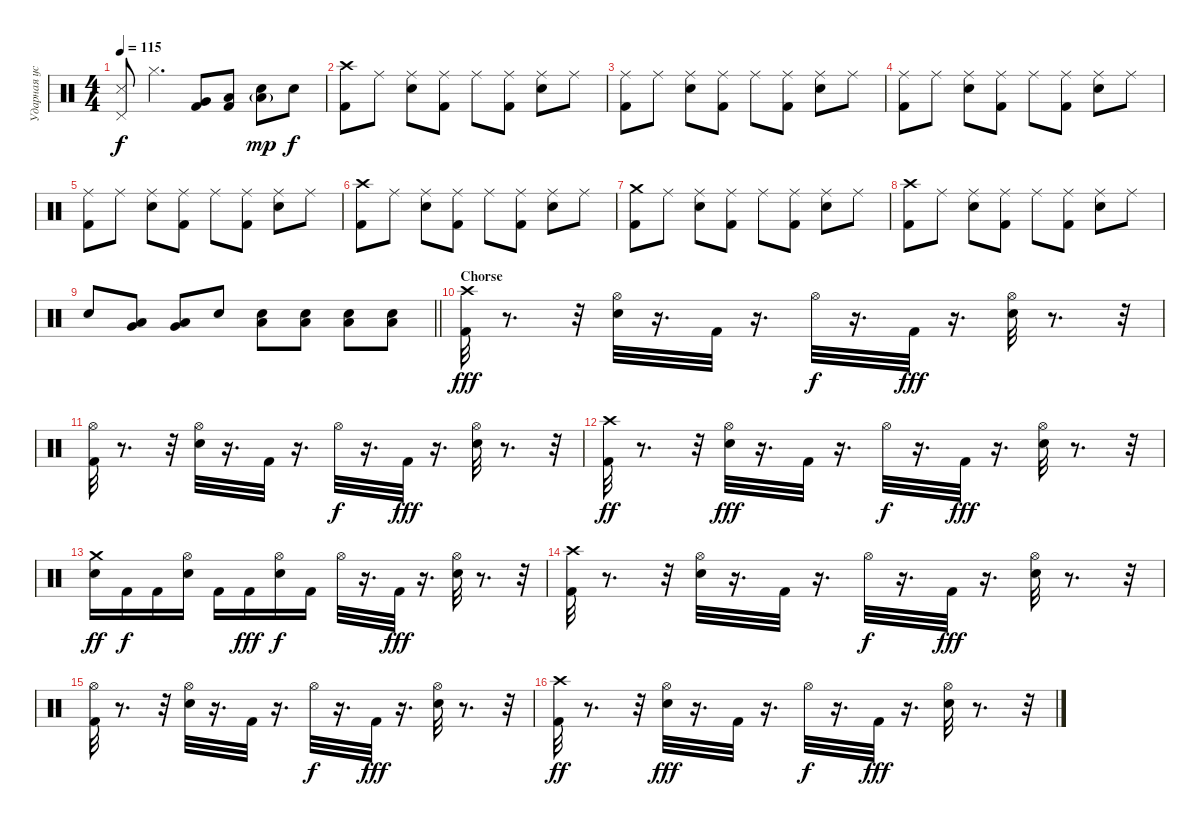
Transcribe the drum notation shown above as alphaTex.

\track ("Ударная установка" "Ударная ус") {instrument percussion}
\staff {score}
\articulation defaults
\ts (4 4)
\tempo 115
\clef neutral
\ks c
("Pedal Hi-Hat (hit)" "Snare (side stick) 3").8{dy f} "Hi-Hat (closed)".4{d} ("Very Low Tom (hit)" "Kick (hit) 2").8 ("Low Floor Tom (hit)" "Kick (hit) 2").8 ("Electric Snare (hit)" "Low Floor Tom (hit)"{g}).8{dy mp} "Electric Snare (hit)".8{dy f} |
("Crash high (hit)" "Kick (hit) 2").8 "Ride (middle)".8 ("Ride (middle)" "Electric Snare (hit)").8 ("Ride (middle)" "Kick (hit) 2").8 "Ride (middle)".8 ("Ride (middle)" "Kick (hit) 2").8 ("Ride (middle)" "Electric Snare (hit)").8 "Ride (middle)".8 |
("Ride (middle)" "Kick (hit) 2").8 "Ride (middle)".8 ("Ride (middle)" "Electric Snare (hit)").8 ("Ride (middle)" "Kick (hit) 2").8 "Ride (middle)".8 ("Ride (middle)" "Kick (hit) 2").8 ("Ride (middle)" "Electric Snare (hit)").8 "Ride (middle)".8 |
("Ride (middle)" "Kick (hit) 2").8 "Ride (middle)".8 ("Ride (middle)" "Electric Snare (hit)").8 ("Ride (middle)" "Kick (hit) 2").8 "Ride (middle)".8 ("Ride (middle)" "Kick (hit) 2").8 ("Ride (middle)" "Electric Snare (hit)").8 "Ride (middle)".8 |
("Ride (middle)" "Kick (hit) 2").8 "Ride (middle)".8 ("Ride (middle)" "Electric Snare (hit)").8 ("Ride (middle)" "Kick (hit) 2").8 "Ride (middle)".8 ("Ride (middle)" "Kick (hit) 2").8 ("Ride (middle)" "Electric Snare (hit)").8 "Ride (middle)".8 |
("Crash high (hit)" "Kick (hit) 2").8 "Ride (middle)".8 ("Ride (middle)" "Electric Snare (hit)").8 ("Ride (middle)" "Kick (hit) 2").8 "Ride (middle)".8 ("Ride (middle)" "Kick (hit) 2").8 ("Ride (middle)" "Electric Snare (hit)").8 "Ride (middle)".8 |
("Crash medium (hit)" "Kick (hit) 2").8 "Ride (middle)".8 ("Ride (middle)" "Electric Snare (hit)").8 ("Ride (middle)" "Kick (hit) 2").8 "Ride (middle)".8 ("Ride (middle)" "Kick (hit) 2").8 ("Ride (middle)" "Electric Snare (hit)").8 "Ride (middle)".8 |
("Crash high (hit)" "Kick (hit) 2").8 "Ride (middle)".8 ("Ride (middle)" "Electric Snare (hit)").8 ("Ride (middle)" "Kick (hit) 2").8 "Ride (middle)".8 ("Ride (middle)" "Kick (hit) 2").8 ("Ride (middle)" "Electric Snare (hit)").8 "Ride (middle)".8 |
\barLineRight lightlight "Electric Snare (hit)".8
("Very Low Tom (hit)" "Low Floor Tom (hit)").8 ("Very Low Tom (hit)" "Low Floor Tom (hit)").8 "Electric Snare (hit)".8 ("Electric Snare (hit)" "Low Floor Tom (hit)").8 ("Electric Snare (hit)" "Low Floor Tom (hit)").8 ("Electric Snare (hit)" "Low Floor Tom (hit)").8 ("Electric Snare (hit)" "Low Floor Tom (hit)").8 |
\section ("" "Chorse")
("Crash high (hit)" "Kick (hit) 2").32{dy fff} r.8{d} r.32 ("Hi-Hat (open)" "Snare (hit) 2").32 r.16{d} "Kick (hit) 2".32 r.16{d} "Hi-Hat (open)".32{dy f} r.16{d} "Kick (hit) 2".32{dy fff} r.16{d} ("Hi-Hat (open)" "Snare (hit) 2").32 r.8{d} r.32 |
("Hi-Hat (open)" "Kick (hit) 2").32 r.8{d} r.32 ("Hi-Hat (open)" "Snare (hit) 2").32 r.16{d} "Kick (hit) 2".32 r.16{d} "Hi-Hat (open)".32{dy f} r.16{d} "Kick (hit) 2".32{dy fff} r.16{d} ("Hi-Hat (open)" "Snare (hit) 2").32 r.8{d} r.32 |
("Kick (hit) 2" "Crash high (hit)").32{dy ff} r.8{d} r.32 ("Snare (hit) 2" "Hi-Hat (open)").32{dy fff} r.16{d} "Kick (hit) 2".32 r.16{d} "Hi-Hat (open)".32{dy f} r.16{d} "Kick (hit) 2".32{dy fff} r.16{d} ("Snare (hit) 2" "Hi-Hat (open)").32 r.8{d} r.32 |
("Snare (hit) 2" "Crash medium (hit)").16{dy ff} "Kick (hit) 2".16{dy f} "Kick (hit) 2".16 ("Snare (hit) 2" "Hi-Hat (open)").16 "Kick (hit) 2".16 "Kick (hit) 2".16{dy fff} ("Snare (hit) 2" "Hi-Hat (open)").16{dy f} "Kick (hit) 2".16 "Hi-Hat (open)".32 r.16{d} "Kick (hit) 2".32{dy fff} r.16{d} ("Snare (hit) 2" "Hi-Hat (open)").32 r.8{d} r.32 |
("Crash high (hit)" "Kick (hit) 2").32 r.8{d} r.32 ("Hi-Hat (open)" "Snare (hit) 2").32 r.16{d} "Kick (hit) 2".32 r.16{d} "Hi-Hat (open)".32{dy f} r.16{d} "Kick (hit) 2".32{dy fff} r.16{d} ("Hi-Hat (open)" "Snare (hit) 2").32 r.8{d} r.32 |
("Hi-Hat (open)" "Kick (hit) 2").32 r.8{d} r.32 ("Hi-Hat (open)" "Snare (hit) 2").32 r.16{d} "Kick (hit) 2".32 r.16{d} "Hi-Hat (open)".32{dy f} r.16{d} "Kick (hit) 2".32{dy fff} r.16{d} ("Hi-Hat (open)" "Snare (hit) 2").32 r.8{d} r.32 |
("Kick (hit) 2" "Crash high (hit)").32{dy ff} r.8{d} r.32 ("Snare (hit) 2" "Hi-Hat (open)").32{dy fff} r.16{d} "Kick (hit) 2".32 r.16{d} "Hi-Hat (open)".32{dy f} r.16{d} "Kick (hit) 2".32{dy fff} r.16{d} ("Snare (hit) 2" "Hi-Hat (open)").32 r.8{d} r.32
